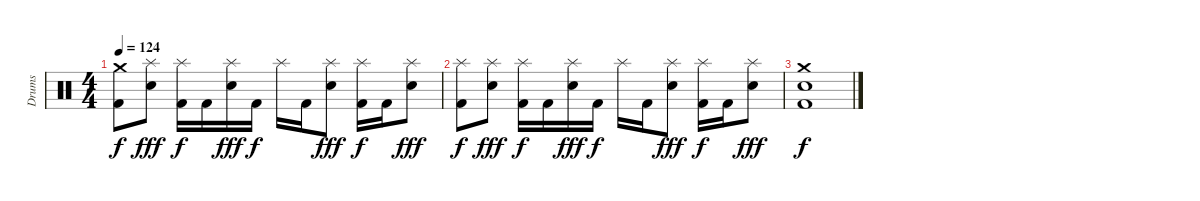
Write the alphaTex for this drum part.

\track ("Drums" "Drums") {instrument percussion}
\staff {score}
\articulation defaults
\ts (4 4)
\tempo 124
\clef neutral
\ks c
("Crash medium (hit)" "Kick (hit) 2").8{dy f} ("Splash (hit)" "Electric Snare (hit)").8{dy fff} ("Splash (hit)" "Kick (hit) 2").16{dy f} "Kick (hit) 2".16 ("Splash (hit)" "Electric Snare (hit)").16{dy fff} "Kick (hit) 2".16{dy f} "Splash (hit)".16 "Kick (hit) 2".16 ("Splash (hit)" "Electric Snare (hit)").8{dy fff} ("Splash (hit)" "Kick (hit) 2").16{dy f} "Kick (hit) 2".16 ("Splash (hit)" "Electric Snare (hit)").8{dy fff} |
("Splash (hit)" "Kick (hit) 2").8{dy f} ("Splash (hit)" "Electric Snare (hit)").8{dy fff} ("Splash (hit)" "Kick (hit) 2").16{dy f} "Kick (hit) 2".16 ("Splash (hit)" "Electric Snare (hit)").16{dy fff} "Kick (hit) 2".16{dy f} "Splash (hit)".16 "Kick (hit) 2".16 ("Splash (hit)" "Electric Snare (hit)").8{dy fff} ("Splash (hit)" "Kick (hit) 2").16{dy f} "Kick (hit) 2".16 ("Splash (hit)" "Electric Snare (hit)").8{dy fff} |
("Crash medium (hit)" "Electric Snare (hit)" "Kick (hit) 2").1{dy f}
